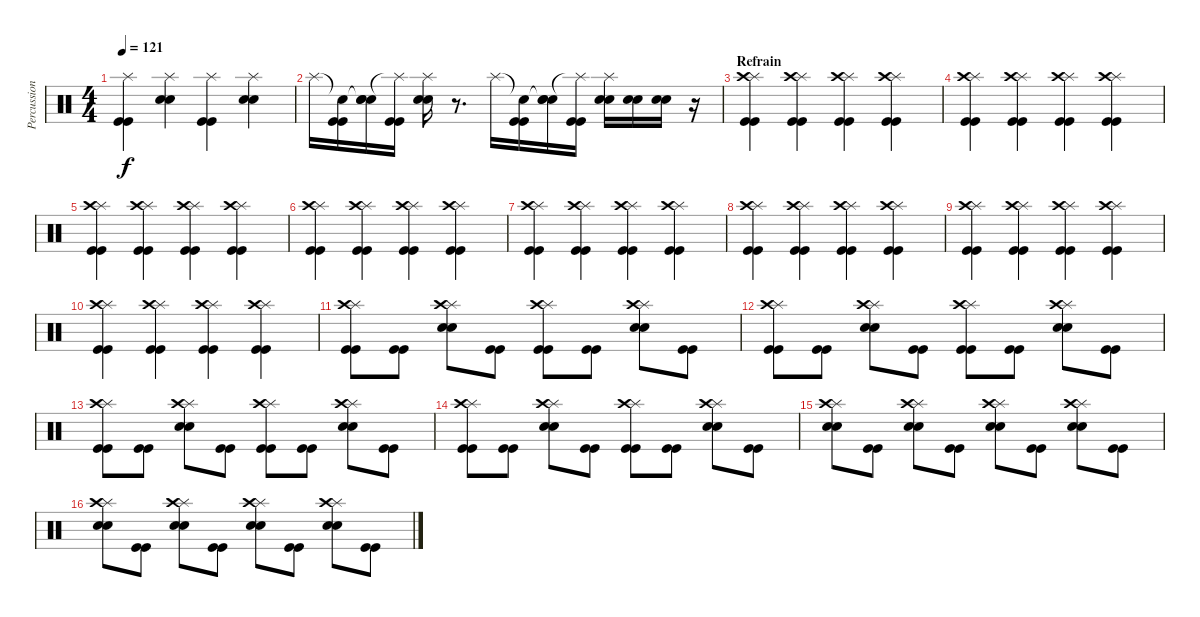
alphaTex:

\track ("Percussions" "Percussion") {instrument percussion}
\staff {score}
\articulation defaults
\ts (4 4)
\tempo 121
\clef neutral
\ks c
("Splash (hit)" "Kick (hit)" "Kick (hit)").4{dy f} ("Splash (hit)" "Electric Snare (hit)" "Electric Snare (hit)").4 ("Splash (hit)" "Kick (hit)" "Kick (hit)").4 ("Splash (hit)" "Electric Snare (hit)" "Electric Snare (hit)").4 |
"Splash (hit)".16 ("Snare (hit)"{t} "Kick (hit)" "Kick (hit)").16 ("Snare (hit)"{t} "Electric Snare (hit)" "Electric Snare (hit)").16 ("Splash (hit)"{t} "Kick (hit)" "Kick (hit)").16 ("Splash (hit)" "Electric Snare (hit)" "Electric Snare (hit)").16 r.8{d} "Splash (hit)".16 ("Snare (hit)"{t} "Kick (hit)" "Kick (hit)").16 ("Snare (hit)"{t} "Electric Snare (hit)" "Electric Snare (hit)").16 ("Splash (hit)"{t} "Kick (hit)" "Kick (hit)").16 ("Splash (hit)" "Electric Snare (hit)" "Electric Snare (hit)").16 ("Electric Snare (hit)" "Electric Snare (hit)").16 ("Electric Snare (hit)" "Electric Snare (hit)").16 r.16 |
\section ("" "Refrain")
("Splash (hit)" "Crash high (hit)" "Kick (hit)" "Kick (hit)").4 ("Splash (hit)" "Crash high (hit)" "Kick (hit)" "Kick (hit)").4 ("Splash (hit)" "Crash high (hit)" "Kick (hit)" "Kick (hit)").4 ("Splash (hit)" "Crash high (hit)" "Kick (hit)" "Kick (hit)").4 |
("Splash (hit)" "Crash high (hit)" "Kick (hit)" "Kick (hit)").4 ("Splash (hit)" "Crash high (hit)" "Kick (hit)" "Kick (hit)").4 ("Splash (hit)" "Crash high (hit)" "Kick (hit)" "Kick (hit)").4 ("Splash (hit)" "Crash high (hit)" "Kick (hit)" "Kick (hit)").4 |
("Splash (hit)" "Crash high (hit)" "Kick (hit)" "Kick (hit)").4 ("Splash (hit)" "Crash high (hit)" "Kick (hit)" "Kick (hit)").4 ("Splash (hit)" "Crash high (hit)" "Kick (hit)" "Kick (hit)").4 ("Splash (hit)" "Crash high (hit)" "Kick (hit)" "Kick (hit)").4 |
("Splash (hit)" "Crash high (hit)" "Kick (hit)" "Kick (hit)").4 ("Splash (hit)" "Crash high (hit)" "Kick (hit)" "Kick (hit)").4 ("Splash (hit)" "Crash high (hit)" "Kick (hit)" "Kick (hit)").4 ("Splash (hit)" "Crash high (hit)" "Kick (hit)" "Kick (hit)").4 |
("Splash (hit)" "Crash high (hit)" "Kick (hit)" "Kick (hit)").4 ("Splash (hit)" "Crash high (hit)" "Kick (hit)" "Kick (hit)").4 ("Splash (hit)" "Crash high (hit)" "Kick (hit)" "Kick (hit)").4 ("Splash (hit)" "Crash high (hit)" "Kick (hit)" "Kick (hit)").4 |
("Splash (hit)" "Crash high (hit)" "Kick (hit)" "Kick (hit)").4 ("Splash (hit)" "Crash high (hit)" "Kick (hit)" "Kick (hit)").4 ("Splash (hit)" "Crash high (hit)" "Kick (hit)" "Kick (hit)").4 ("Splash (hit)" "Crash high (hit)" "Kick (hit)" "Kick (hit)").4 |
("Splash (hit)" "Crash high (hit)" "Kick (hit)" "Kick (hit)").4 ("Splash (hit)" "Crash high (hit)" "Kick (hit)" "Kick (hit)").4 ("Splash (hit)" "Crash high (hit)" "Kick (hit)" "Kick (hit)").4 ("Splash (hit)" "Crash high (hit)" "Kick (hit)" "Kick (hit)").4 |
("Splash (hit)" "Crash high (hit)" "Kick (hit)" "Kick (hit)").4 ("Splash (hit)" "Crash high (hit)" "Kick (hit)" "Kick (hit)").4 ("Splash (hit)" "Crash high (hit)" "Kick (hit)" "Kick (hit)").4 ("Splash (hit)" "Crash high (hit)" "Kick (hit)" "Kick (hit)").4 |
("Splash (hit)" "Crash high (hit)" "Kick (hit)" "Kick (hit)").8 ("Kick (hit)" "Kick (hit)").8 ("Splash (hit)" "Crash high (hit)" "Electric Snare (hit)" "Electric Snare (hit)").8 ("Kick (hit)" "Kick (hit)").8 ("Splash (hit)" "Crash high (hit)" "Kick (hit)" "Kick (hit)").8 ("Kick (hit)" "Kick (hit)").8 ("Splash (hit)" "Crash high (hit)" "Electric Snare (hit)" "Electric Snare (hit)").8 ("Kick (hit)" "Kick (hit)").8 |
("Splash (hit)" "Crash high (hit)" "Kick (hit)" "Kick (hit)").8 ("Kick (hit)" "Kick (hit)").8 ("Splash (hit)" "Crash high (hit)" "Electric Snare (hit)" "Electric Snare (hit)").8 ("Kick (hit)" "Kick (hit)").8 ("Splash (hit)" "Crash high (hit)" "Kick (hit)" "Kick (hit)").8 ("Kick (hit)" "Kick (hit)").8 ("Splash (hit)" "Crash high (hit)" "Electric Snare (hit)" "Electric Snare (hit)").8 ("Kick (hit)" "Kick (hit)").8 |
("Splash (hit)" "Crash high (hit)" "Kick (hit)" "Kick (hit)").8 ("Kick (hit)" "Kick (hit)").8 ("Splash (hit)" "Crash high (hit)" "Electric Snare (hit)" "Electric Snare (hit)").8 ("Kick (hit)" "Kick (hit)").8 ("Splash (hit)" "Crash high (hit)" "Kick (hit)" "Kick (hit)").8 ("Kick (hit)" "Kick (hit)").8 ("Splash (hit)" "Crash high (hit)" "Electric Snare (hit)" "Electric Snare (hit)").8 ("Kick (hit)" "Kick (hit)").8 |
("Splash (hit)" "Crash high (hit)" "Kick (hit)" "Kick (hit)").8 ("Kick (hit)" "Kick (hit)").8 ("Splash (hit)" "Crash high (hit)" "Electric Snare (hit)" "Electric Snare (hit)").8 ("Kick (hit)" "Kick (hit)").8 ("Splash (hit)" "Crash high (hit)" "Kick (hit)" "Kick (hit)").8 ("Kick (hit)" "Kick (hit)").8 ("Splash (hit)" "Crash high (hit)" "Electric Snare (hit)" "Electric Snare (hit)").8 ("Kick (hit)" "Kick (hit)").8 |
("Splash (hit)" "Crash high (hit)" "Electric Snare (hit)" "Electric Snare (hit)").8 ("Kick (hit)" "Kick (hit)").8 ("Splash (hit)" "Crash high (hit)" "Electric Snare (hit)" "Electric Snare (hit)").8 ("Kick (hit)" "Kick (hit)").8 ("Splash (hit)" "Crash high (hit)" "Electric Snare (hit)" "Electric Snare (hit)").8 ("Kick (hit)" "Kick (hit)").8 ("Splash (hit)" "Crash high (hit)" "Electric Snare (hit)" "Electric Snare (hit)").8 ("Kick (hit)" "Kick (hit)").8 |
("Splash (hit)" "Crash high (hit)" "Electric Snare (hit)" "Electric Snare (hit)").8 ("Kick (hit)" "Kick (hit)").8 ("Splash (hit)" "Crash high (hit)" "Electric Snare (hit)" "Electric Snare (hit)").8 ("Kick (hit)" "Kick (hit)").8 ("Splash (hit)" "Crash high (hit)" "Electric Snare (hit)" "Electric Snare (hit)").8 ("Kick (hit)" "Kick (hit)").8 ("Splash (hit)" "Crash high (hit)" "Electric Snare (hit)" "Electric Snare (hit)").8 ("Kick (hit)" "Kick (hit)").8
